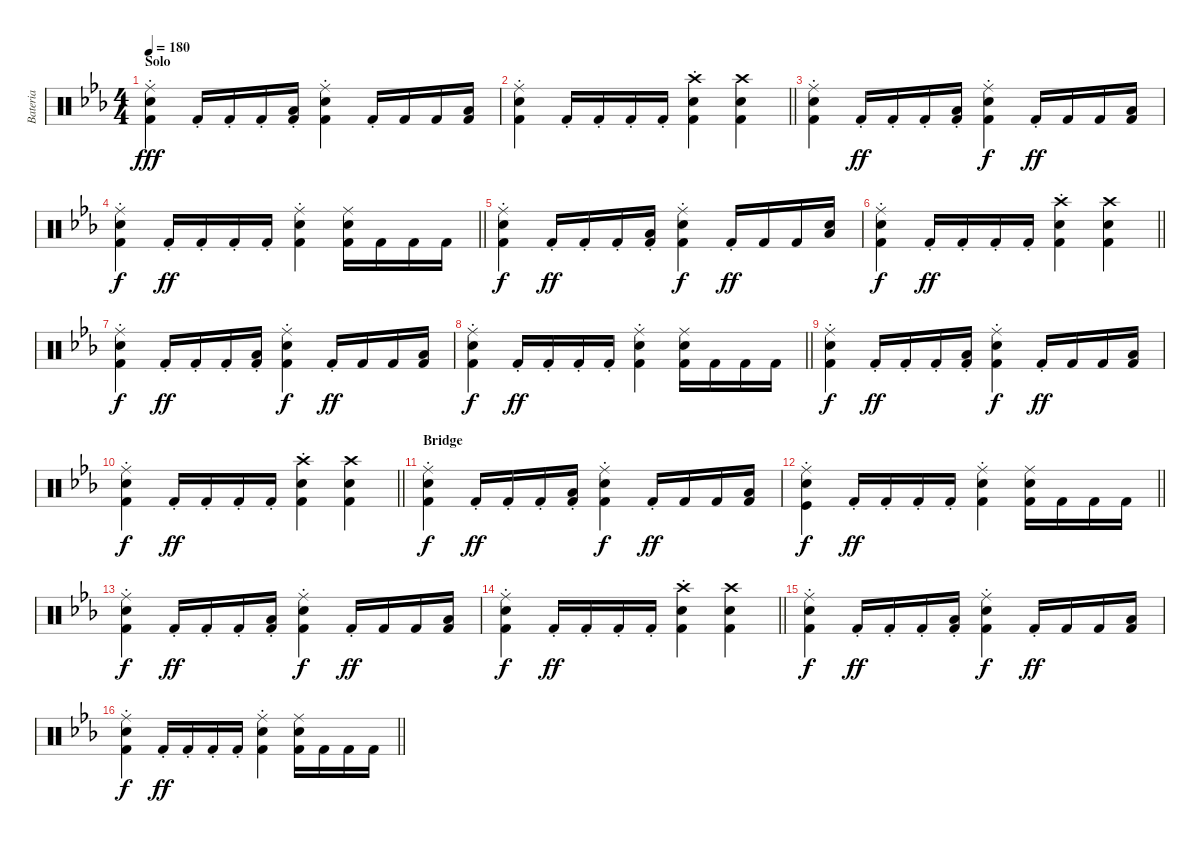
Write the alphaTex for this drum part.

\track ("Bateria" "Bateria") {instrument percussion}
\staff {score}
\articulation defaults
\ts (4 4)
\section ("" "Solo")
\tempo 180
\clef neutral
\ks eb
("Ride (middle)"{st} "Snare (hit) 2"{st} "Kick (hit) 2"{st}).4{dy fff} "Kick (hit) 2"{st}.16 "Kick (hit) 2"{st}.16 "Kick (hit) 2"{st}.16 ("Low Tom (hit)" "Kick (hit) 2"{st}).16 ("Ride (middle)"{st} "Snare (hit) 2"{st} "Kick (hit) 2"{st}).4 "Kick (hit) 2"{st}.16 "Kick (hit) 2".16 "Kick (hit) 2".16 ("Low Tom (hit)" "Kick (hit) 2").16 |
\barLineRight lightlight
("Ride (middle)"{st} "Snare (hit) 2"{st} "Kick (hit) 2"{st}).4 "Kick (hit) 2"{st}.16 "Kick (hit) 2"{st}.16 "Kick (hit) 2"{st}.16 "Kick (hit) 2"{st}.16 ("Crash high (hit)" "Snare (hit) 2" "Kick (hit) 2"{st}).4 ("Crash high (hit)" "Snare (hit) 2" "Kick (hit) 2").4 |
("Ride (middle)"{st} "Snare (hit) 2"{st} "Kick (hit) 2"{st}).4 "Kick (hit) 2"{st}.16{dy ff} "Kick (hit) 2"{st}.16 "Kick (hit) 2"{st}.16 ("Low Tom (hit)" "Kick (hit) 2"{st}).16 ("Ride (middle)"{st} "Snare (hit) 2"{st} "Kick (hit) 2"{st}).4{dy f} "Kick (hit) 2"{st}.16{dy ff} "Kick (hit) 2".16 "Kick (hit) 2".16 ("Low Tom (hit)" "Kick (hit) 2").16 |
\barLineRight lightlight
("Ride (middle)"{st} "Snare (hit) 2"{st} "Kick (hit) 2"{st}).4{dy f} "Kick (hit) 2"{st}.16{dy ff} "Kick (hit) 2"{st}.16 "Kick (hit) 2"{st}.16 "Kick (hit) 2"{st}.16 ("Ride (middle)" "Snare (hit) 2" "Kick (hit) 2"{st}).4 ("Ride (middle)" "Snare (hit) 2" "Kick (hit) 2").16 "Kick (hit) 2".16 "Kick (hit) 2".16 "Kick (hit) 2".16 |
("Ride (middle)"{st} "Snare (hit) 2"{st} "Kick (hit) 2"{st}).4{dy f} "Kick (hit) 2"{st}.16{dy ff} "Kick (hit) 2"{st}.16 "Kick (hit) 2"{st}.16 ("Low Tom (hit)" "Kick (hit) 2"{st}).16 ("Ride (middle)"{st} "Snare (hit) 2"{st} "Kick (hit) 2"{st}).4{dy f} "Kick (hit) 2"{st}.16{dy ff} "Kick (hit) 2".16 "Kick (hit) 2".16 ("Low Tom (hit)" "Snare (hit)").16 |
\barLineRight lightlight
("Ride (middle)"{st} "Snare (hit) 2"{st} "Kick (hit) 2"{st}).4{dy f} "Kick (hit) 2"{st}.16{dy ff} "Kick (hit) 2"{st}.16 "Kick (hit) 2"{st}.16 "Kick (hit) 2"{st}.16 ("Crash high (hit)" "Snare (hit) 2" "Kick (hit) 2"{st}).4 ("Crash high (hit)" "Snare (hit) 2" "Kick (hit) 2").4 |
("Ride (middle)"{st} "Snare (hit) 2"{st} "Kick (hit) 2"{st}).4{dy f} "Kick (hit) 2"{st}.16{dy ff} "Kick (hit) 2"{st}.16 "Kick (hit) 2"{st}.16 ("Low Tom (hit)" "Kick (hit) 2"{st}).16 ("Ride (middle)"{st} "Snare (hit) 2"{st} "Kick (hit) 2"{st}).4{dy f} "Kick (hit) 2"{st}.16{dy ff} "Kick (hit) 2".16 "Kick (hit) 2".16 ("Low Tom (hit)" "Kick (hit) 2").16 |
\barLineRight lightlight
("Ride (middle)"{st} "Snare (hit) 2"{st} "Kick (hit) 2"{st}).4{dy f} "Kick (hit) 2"{st}.16{dy ff} "Kick (hit) 2"{st}.16 "Kick (hit) 2"{st}.16 "Kick (hit) 2"{st}.16 ("Ride (middle)" "Snare (hit) 2" "Kick (hit) 2"{st}).4 ("Ride (middle)" "Snare (hit) 2" "Kick (hit) 2").16 "Kick (hit) 2".16 "Kick (hit) 2".16 "Kick (hit) 2".16 |
("Ride (middle)"{st} "Snare (hit) 2"{st} "Kick (hit) 2"{st}).4{dy f} "Kick (hit) 2"{st}.16{dy ff} "Kick (hit) 2"{st}.16 "Kick (hit) 2"{st}.16 ("Low Tom (hit)" "Kick (hit) 2"{st}).16 ("Ride (middle)"{st} "Snare (hit) 2"{st} "Kick (hit) 2"{st}).4{dy f} "Kick (hit) 2"{st}.16{dy ff} "Kick (hit) 2".16 "Kick (hit) 2".16 ("Low Tom (hit)" "Kick (hit) 2").16 |
\barLineRight lightlight
("Ride (middle)"{st} "Snare (hit) 2"{st} "Kick (hit) 2"{st}).4{dy f} "Kick (hit) 2"{st}.16{dy ff} "Kick (hit) 2"{st}.16 "Kick (hit) 2"{st}.16 "Kick (hit) 2"{st}.16 ("Crash high (hit)" "Snare (hit) 2" "Kick (hit) 2"{st}).4 ("Crash high (hit)" "Snare (hit) 2" "Kick (hit) 2").4 |
\section ("" "Bridge")
("Ride (middle)"{st} "Snare (hit) 2"{st} "Kick (hit) 2"{st}).4{dy f} "Kick (hit) 2"{st}.16{dy ff} "Kick (hit) 2"{st}.16 "Kick (hit) 2"{st}.16 ("Low Tom (hit)" "Kick (hit) 2"{st}).16 ("Ride (middle)"{st} "Snare (hit) 2"{st} "Kick (hit) 2"{st}).4{dy f} "Kick (hit) 2"{st}.16{dy ff} "Kick (hit) 2".16 "Kick (hit) 2".16 ("Low Tom (hit)" "Kick (hit) 2").16 |
\barLineRight lightlight
("Ride (middle)"{st} "Snare (hit) 2"{st} "Kick (hit)"{st}).4{dy f} "Kick (hit) 2"{st}.16{dy ff} "Kick (hit) 2"{st}.16 "Kick (hit) 2"{st}.16 "Kick (hit) 2"{st}.16 ("Ride (middle)" "Snare (hit) 2" "Kick (hit) 2"{st}).4 ("Ride (middle)" "Snare (hit) 2" "Kick (hit) 2").16 "Kick (hit) 2".16 "Kick (hit) 2".16 "Kick (hit) 2".16 |
("Ride (middle)"{st} "Snare (hit) 2"{st} "Kick (hit) 2"{st}).4{dy f} "Kick (hit) 2"{st}.16{dy ff} "Kick (hit) 2"{st}.16 "Kick (hit) 2"{st}.16 ("Low Tom (hit)" "Kick (hit) 2"{st}).16 ("Ride (middle)"{st} "Snare (hit) 2"{st} "Kick (hit) 2"{st}).4{dy f} "Kick (hit) 2"{st}.16{dy ff} "Kick (hit) 2".16 "Kick (hit) 2".16 ("Low Tom (hit)" "Kick (hit) 2").16 |
\barLineRight lightlight
("Ride (middle)"{st} "Snare (hit) 2"{st} "Kick (hit) 2"{st}).4{dy f} "Kick (hit) 2"{st}.16{dy ff} "Kick (hit) 2"{st}.16 "Kick (hit) 2"{st}.16 "Kick (hit) 2"{st}.16 ("Crash high (hit)" "Snare (hit) 2" "Kick (hit) 2"{st}).4 ("Crash high (hit)" "Snare (hit) 2" "Kick (hit) 2").4 |
("Ride (middle)"{st} "Snare (hit) 2"{st} "Kick (hit) 2"{st}).4{dy f} "Kick (hit) 2"{st}.16{dy ff} "Kick (hit) 2"{st}.16 "Kick (hit) 2"{st}.16 ("Low Tom (hit)" "Kick (hit) 2"{st}).16 ("Ride (middle)"{st} "Snare (hit) 2"{st} "Kick (hit) 2"{st}).4{dy f} "Kick (hit) 2"{st}.16{dy ff} "Kick (hit) 2".16 "Kick (hit) 2".16 ("Low Tom (hit)" "Kick (hit) 2").16 |
\barLineRight lightlight
("Ride (middle)"{st} "Snare (hit) 2"{st} "Kick (hit) 2"{st}).4{dy f} "Kick (hit) 2"{st}.16{dy ff} "Kick (hit) 2"{st}.16 "Kick (hit) 2"{st}.16 "Kick (hit) 2"{st}.16 ("Ride (middle)" "Snare (hit) 2" "Kick (hit) 2"{st}).4 ("Ride (middle)" "Snare (hit) 2" "Kick (hit) 2").16 "Kick (hit) 2".16 "Kick (hit) 2".16 "Kick (hit) 2".16
